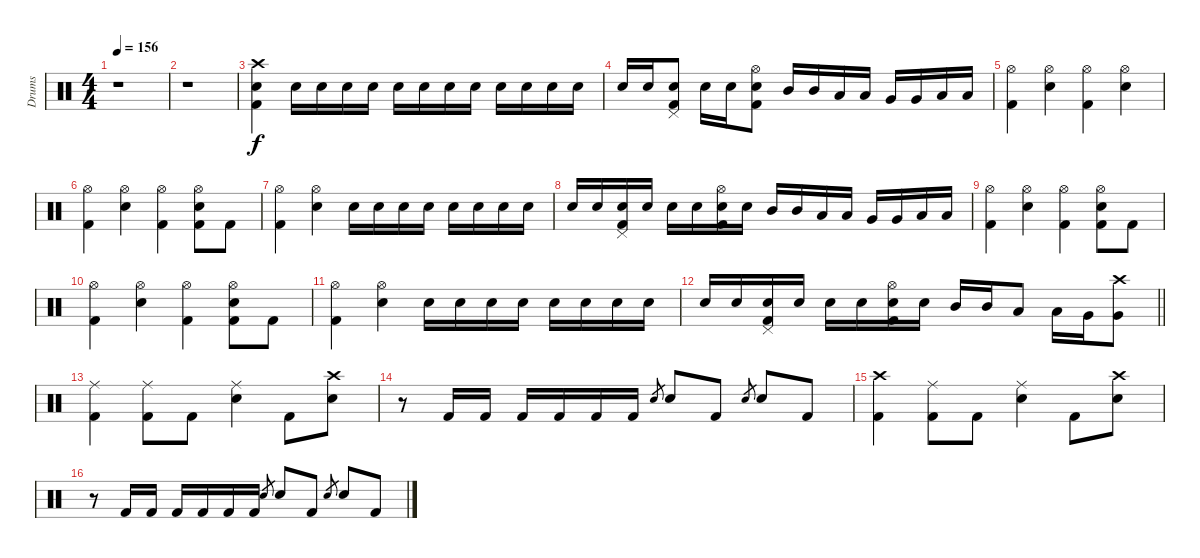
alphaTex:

\track ("Drums" "Drums") {instrument percussion}
\staff {score}
\articulation defaults
\ts (4 4)
\tempo 156
\clef neutral
\ks c
r.1{dy f} |
r.1 |
("Crash high (hit)" "Electric Snare (hit)" "Kick (hit) 2").4 "Electric Snare (hit)".16 "Electric Snare (hit)".16 "Electric Snare (hit)".16 "Electric Snare (hit)".16 "Electric Snare (hit)".16 "Electric Snare (hit)".16 "Electric Snare (hit)".16 "Electric Snare (hit)".16 "Electric Snare (hit)".16 "Electric Snare (hit)".16 "Electric Snare (hit)".16 "Electric Snare (hit)".16 |
"Electric Snare (hit)".16 "Electric Snare (hit)".16 ("Pedal Hi-Hat (hit)" "Electric Snare (hit)" "Kick (hit) 2").8 "Electric Snare (hit)".16 "Electric Snare (hit)".16 ("Hi-Hat (open)" "Electric Snare (hit)" "Kick (hit) 2").8 "Mid Tom (hit)".16 "Mid Tom (hit)".16 "Low Tom (hit)".16 "Low Tom (hit)".16 "Very Low Tom (hit)".16 "Very Low Tom (hit)".16 "Low Floor Tom (hit)".16 "Low Floor Tom (hit)".16 |
("Hi-Hat (open)" "Kick (hit) 2").4 ("Hi-Hat (open)" "Electric Snare (hit)").4 ("Hi-Hat (open)" "Kick (hit) 2").4 ("Hi-Hat (open)" "Electric Snare (hit)").4 |
("Hi-Hat (open)" "Kick (hit) 2").4 ("Hi-Hat (open)" "Electric Snare (hit)").4 ("Hi-Hat (open)" "Kick (hit) 2").4 ("Hi-Hat (open)" "Electric Snare (hit)" "Kick (hit) 2").8 "Kick (hit) 2".8 |
("Hi-Hat (open)" "Kick (hit) 2").4 ("Hi-Hat (open)" "Electric Snare (hit)").4 "Electric Snare (hit)".16 "Electric Snare (hit)".16 "Electric Snare (hit)".16 "Electric Snare (hit)".16 "Electric Snare (hit)".16 "Electric Snare (hit)".16 "Electric Snare (hit)".16 "Electric Snare (hit)".16 |
"Electric Snare (hit)".16 "Electric Snare (hit)".16 ("Pedal Hi-Hat (hit)" "Electric Snare (hit)" "Kick (hit) 2").16 "Electric Snare (hit)".16 "Electric Snare (hit)".16 "Electric Snare (hit)".16 ("Hi-Hat (open)" "Electric Snare (hit)" "Kick (hit) 2").16 "Electric Snare (hit)".16 "Mid Tom (hit)".16 "Mid Tom (hit)".16 "Low Tom (hit)".16 "Low Tom (hit)".16 "Very Low Tom (hit)".16 "Very Low Tom (hit)".16 "Low Floor Tom (hit)".16 "Low Floor Tom (hit)".16 |
("Hi-Hat (open)" "Kick (hit) 2").4 ("Hi-Hat (open)" "Electric Snare (hit)").4 ("Hi-Hat (open)" "Kick (hit) 2").4 ("Hi-Hat (open)" "Electric Snare (hit)" "Kick (hit) 2").8 "Kick (hit) 2".8 |
("Hi-Hat (open)" "Kick (hit) 2").4 ("Hi-Hat (open)" "Electric Snare (hit)").4 ("Hi-Hat (open)" "Kick (hit) 2").4 ("Hi-Hat (open)" "Electric Snare (hit)" "Kick (hit) 2").8 "Kick (hit) 2".8 |
("Hi-Hat (open)" "Kick (hit) 2").4 ("Hi-Hat (open)" "Electric Snare (hit)").4 "Electric Snare (hit)".16 "Electric Snare (hit)".16 "Electric Snare (hit)".16 "Electric Snare (hit)".16 "Electric Snare (hit)".16 "Electric Snare (hit)".16 "Electric Snare (hit)".16 "Electric Snare (hit)".16 |
\barLineRight lightlight "Electric Snare (hit)".16 "Electric Snare (hit)".16
("Pedal Hi-Hat (hit)" "Electric Snare (hit)" "Kick (hit) 2").16 "Electric Snare (hit)".16 "Electric Snare (hit)".16 "Electric Snare (hit)".16 ("Hi-Hat (open)" "Electric Snare (hit)" "Kick (hit) 2").16 "Electric Snare (hit)".16 "Mid Tom (hit)".16 "Mid Tom (hit)".16 "Low Tom (hit)".8 "Low Tom (hit)".16 "Very Low Tom (hit)".16 ("Crash high (hit)" "Very Low Tom (hit)").8 |
("Ride (middle)" "Kick (hit) 2").4 ("Ride (middle)" "Kick (hit) 2").8 "Kick (hit) 2".8 ("Ride (middle)" "Electric Snare (hit)").4 "Kick (hit) 2".8 ("Crash high (hit)" "Electric Snare (hit)").8 |
r.8 "Kick (hit) 2".16 "Kick (hit) 2".16 "Kick (hit) 2".16 "Kick (hit) 2".16 "Kick (hit) 2".16 "Kick (hit) 2".16 "Electric Snare (hit)".8{gr} "Electric Snare (hit)".8 "Kick (hit) 2".8 "Electric Snare (hit)".8{gr} "Electric Snare (hit)".8 "Kick (hit) 2".8 |
("Crash high (hit)" "Kick (hit) 2").4 ("Ride (middle)" "Kick (hit) 2").8 "Kick (hit) 2".8 ("Ride (middle)" "Electric Snare (hit)").4 "Kick (hit) 2".8 ("Crash high (hit)" "Electric Snare (hit)").8 |
r.8 "Kick (hit) 2".16 "Kick (hit) 2".16 "Kick (hit) 2".16 "Kick (hit) 2".16 "Kick (hit) 2".16 "Kick (hit) 2".16 "Electric Snare (hit)".8{gr} "Electric Snare (hit)".8 "Kick (hit) 2".8 "Electric Snare (hit)".8{gr} "Electric Snare (hit)".8 "Kick (hit) 2".8
